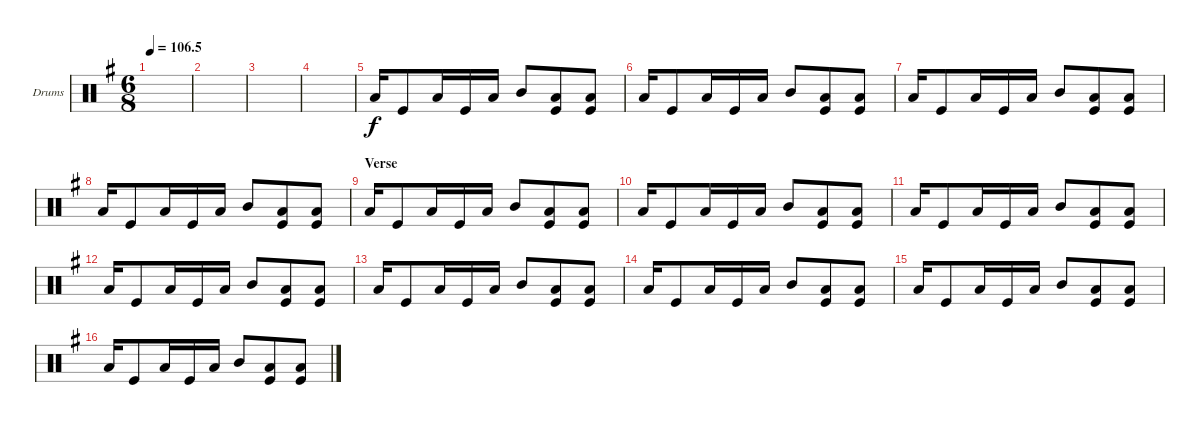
\defaultSystemsLayout 4
\bracketExtendMode groupsimilarinstruments
\firstSystemTrackNameOrientation horizontal
\otherSystemsTrackNameOrientation horizontal
\track ("Drumkit" "Drums") {instrument percussion}
\staff {score}
\articulation defaults
\ts (6 8)
\tempo
106.5
\accidentals auto
\clef neutral
\ottava regular
\simile none
\scale
0.502183
\ks g
|
\scale
0.248908 |
\scale
0.248908 |
\scale
0.333333 |
\scale
0.333333 "Low Tom (hit)".16 "Kick (hit)".8 "Low Tom (hit)".16 "Kick (hit)".16 "Low Tom (hit)".16 "Mid Tom (hit)".8 ("Low Tom (hit)" "Kick (hit)").8 ("Low Tom (hit)" "Kick (hit)").8 |
\scale
0.333333 "Low Tom (hit)".16 "Kick (hit)".8 "Low Tom (hit)".16 "Kick (hit)".16 "Low Tom (hit)".16 "Mid Tom (hit)".8 ("Low Tom (hit)" "Kick (hit)").8 ("Low Tom (hit)" "Kick (hit)").8 |
\scale
0.333333 "Low Tom (hit)".16 "Kick (hit)".8 "Low Tom (hit)".16 "Kick (hit)".16 "Low Tom (hit)".16 "Mid Tom (hit)".8 ("Low Tom (hit)" "Kick (hit)").8 ("Low Tom (hit)" "Kick (hit)").8 |
\scale
0.333333 "Low Tom (hit)".16 "Kick (hit)".8 "Low Tom (hit)".16 "Kick (hit)".16 "Low Tom (hit)".16 "Mid Tom (hit)".8 ("Low Tom (hit)" "Kick (hit)").8 ("Low Tom (hit)" "Kick (hit)").8 |
\section ("" "Verse")
\scale
0.333333 "Low Tom (hit)".16 "Kick (hit)".8 "Low Tom (hit)".16 "Kick (hit)".16 "Low Tom (hit)".16 "Mid Tom (hit)".8 ("Low Tom (hit)" "Kick (hit)").8 ("Low Tom (hit)" "Kick (hit)").8 |
\scale
0.333333 "Low Tom (hit)".16 "Kick (hit)".8 "Low Tom (hit)".16 "Kick (hit)".16 "Low Tom (hit)".16 "Mid Tom (hit)".8 ("Low Tom (hit)" "Kick (hit)").8 ("Low Tom (hit)" "Kick (hit)").8 |
\scale
0.333333 "Low Tom (hit)".16 "Kick (hit)".8 "Low Tom (hit)".16 "Kick (hit)".16 "Low Tom (hit)".16 "Mid Tom (hit)".8 ("Low Tom (hit)" "Kick (hit)").8 ("Low Tom (hit)" "Kick (hit)").8 |
\scale
0.333333 "Low Tom (hit)".16 "Kick (hit)".8 "Low Tom (hit)".16 "Kick (hit)".16 "Low Tom (hit)".16 "Mid Tom (hit)".8 ("Low Tom (hit)" "Kick (hit)").8 ("Low Tom (hit)" "Kick (hit)").8 |
\scale
0.333333 "Low Tom (hit)".16 "Kick (hit)".8 "Low Tom (hit)".16 "Kick (hit)".16 "Low Tom (hit)".16 "Mid Tom (hit)".8 ("Low Tom (hit)" "Kick (hit)").8 ("Low Tom (hit)" "Kick (hit)").8 |
\scale
0.333333 "Low Tom (hit)".16 "Kick (hit)".8 "Low Tom (hit)".16 "Kick (hit)".16 "Low Tom (hit)".16 "Mid Tom (hit)".8 ("Low Tom (hit)" "Kick (hit)").8 ("Low Tom (hit)" "Kick (hit)").8 |
\scale
0.333333 "Low Tom (hit)".16 "Kick (hit)".8 "Low Tom (hit)".16 "Kick (hit)".16 "Low Tom (hit)".16 "Mid Tom (hit)".8 ("Low Tom (hit)" "Kick (hit)").8 ("Low Tom (hit)" "Kick (hit)").8 |
\scale
0.333333 "Low Tom (hit)".16 "Kick (hit)".8 "Low Tom (hit)".16 "Kick (hit)".16 "Low Tom (hit)".16 "Mid Tom (hit)".8 ("Low Tom (hit)" "Kick (hit)").8 ("Low Tom (hit)" "Kick (hit)").8
